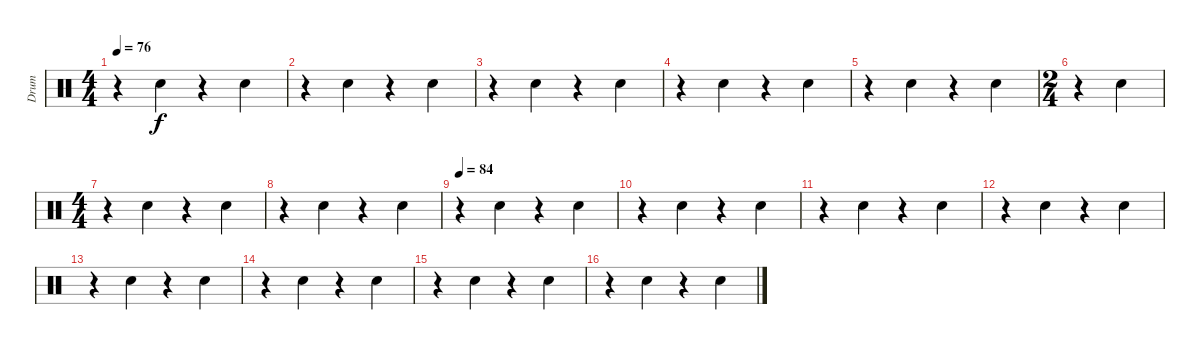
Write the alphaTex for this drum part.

\track ("Drum" "Drum") {instrument percussion}
\staff {score}
\articulation defaults
\ts (4 4)
\tempo 76
\clef neutral
\ks c
r.4{dy f} "Electric Snare (hit)".4 r.4 "Electric Snare (hit)".4 |
r.4 "Electric Snare (hit)".4 r.4 "Electric Snare (hit)".4 |
r.4 "Electric Snare (hit)".4 r.4 "Electric Snare (hit)".4 |
r.4 "Electric Snare (hit)".4 r.4 "Electric Snare (hit)".4 |
r.4 "Electric Snare (hit)".4 r.4 "Electric Snare (hit)".4 |
\ts (2 4)
r.4 "Electric Snare (hit)".4 |
\ts (4 4)
r.4 "Electric Snare (hit)".4 r.4 "Electric Snare (hit)".4 |
r.4 "Electric Snare (hit)".4 r.4 "Electric Snare (hit)".4 |
\tempo 84
r.4 "Electric Snare (hit)".4 r.4 "Electric Snare (hit)".4 |
r.4 "Electric Snare (hit)".4 r.4 "Electric Snare (hit)".4 |
r.4 "Electric Snare (hit)".4 r.4 "Electric Snare (hit)".4 |
r.4 "Electric Snare (hit)".4 r.4 "Electric Snare (hit)".4 |
r.4 "Electric Snare (hit)".4 r.4 "Electric Snare (hit)".4 |
r.4 "Electric Snare (hit)".4 r.4 "Electric Snare (hit)".4 |
r.4 "Electric Snare (hit)".4 r.4 "Electric Snare (hit)".4 |
r.4 "Electric Snare (hit)".4 r.4 "Electric Snare (hit)".4
